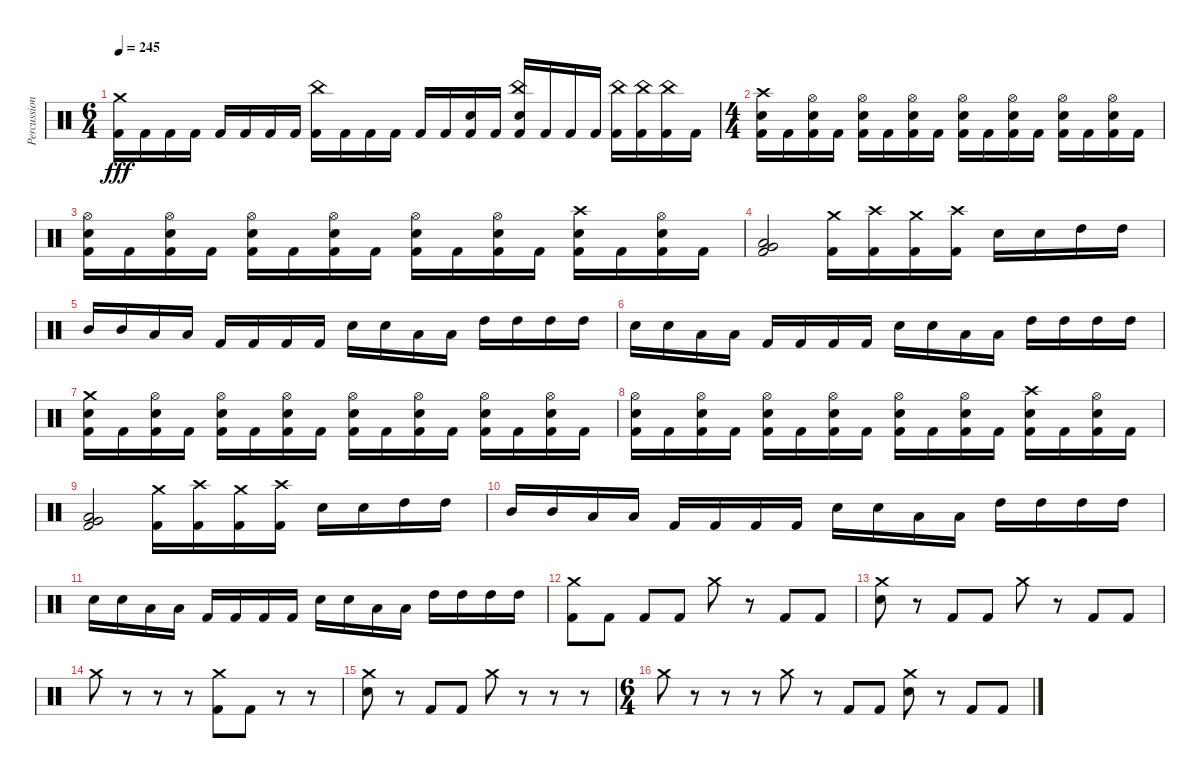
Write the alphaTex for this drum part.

\track ("Percussion" "Percussion") {instrument percussion bank 177}
\staff {score}
\articulation defaults
\ts (6 4)
\tempo 245
\clef neutral
\ks c
("Crash medium (hit)" "Kick (hit) 2").16{dy fff} "Kick (hit) 2".16 "Kick (hit) 2".16 "Kick (hit) 2".16 "Kick (hit) 2".16 "Kick (hit) 2".16 "Kick (hit) 2".16 "Kick (hit) 2".16 ("China (hit)" "Kick (hit) 2").16 "Kick (hit) 2".16 "Kick (hit) 2".16 "Kick (hit) 2".16 "Kick (hit) 2".16 "Kick (hit) 2".16 ("Electric Snare (hit)" "Kick (hit) 2").16 "Kick (hit) 2".16 ("China (hit)" "Electric Snare (hit)" "Kick (hit) 2").16 "Kick (hit) 2".16 "Kick (hit) 2".16 "Kick (hit) 2".16 ("China (hit)" "Kick (hit) 2").16 ("China (hit)" "Kick (hit) 2").16 ("China (hit)" "Kick (hit) 2").16 "Kick (hit) 2".16 |
\ts (4 4)
("Crash high (hit)" "Electric Snare (hit)" "Kick (hit) 2").16 "Kick (hit) 2".16 ("Hi-Hat (open)" "Electric Snare (hit)" "Kick (hit) 2").16 "Kick (hit) 2".16 ("Hi-Hat (open)" "Electric Snare (hit)" "Kick (hit) 2").16 "Kick (hit) 2".16 ("Hi-Hat (open)" "Electric Snare (hit)" "Kick (hit) 2").16 "Kick (hit) 2".16 ("Hi-Hat (open)" "Electric Snare (hit)" "Kick (hit) 2").16 "Kick (hit) 2".16 ("Hi-Hat (open)" "Electric Snare (hit)" "Kick (hit) 2").16 "Kick (hit) 2".16 ("Hi-Hat (open)" "Electric Snare (hit)" "Kick (hit) 2").16 "Kick (hit) 2".16 ("Hi-Hat (open)" "Electric Snare (hit)" "Kick (hit) 2").16 "Kick (hit) 2".16 |
("Hi-Hat (open)" "Electric Snare (hit)" "Kick (hit) 2").16 "Kick (hit) 2".16 ("Hi-Hat (open)" "Electric Snare (hit)" "Kick (hit) 2").16 "Kick (hit) 2".16 ("Hi-Hat (open)" "Electric Snare (hit)" "Kick (hit) 2").16 "Kick (hit) 2".16 ("Hi-Hat (open)" "Electric Snare (hit)" "Kick (hit) 2").16 "Kick (hit) 2".16 ("Hi-Hat (open)" "Electric Snare (hit)" "Kick (hit) 2").16 "Kick (hit) 2".16 ("Hi-Hat (open)" "Electric Snare (hit)" "Kick (hit) 2").16 "Kick (hit) 2".16 ("Crash high (hit)" "Electric Snare (hit)" "Kick (hit) 2").16 "Kick (hit) 2".16 ("Hi-Hat (open)" "Electric Snare (hit)" "Kick (hit) 2").16 "Kick (hit) 2".16 |
("Low Tom (hit)" "Very Low Tom (hit)" "Kick (hit) 2").2 ("Crash medium (hit)" "Kick (hit) 2").16 ("Crash high (hit)" "Kick (hit) 2").16 ("Crash medium (hit)" "Kick (hit) 2").16 ("Crash high (hit)" "Kick (hit) 2").16 "Electric Snare (hit)".16 "Electric Snare (hit)".16 "High Tom (hit)".16 "High Tom (hit)".16 |
"Mid Tom (hit)".16 "Mid Tom (hit)".16 "Low Tom (hit)".16 "Low Tom (hit)".16 "Kick (hit) 2".16 "Kick (hit) 2".16 "Kick (hit) 2".16 "Kick (hit) 2".16 "Electric Snare (hit)".16 "Electric Snare (hit)".16 "Low Tom (hit)".16 "Low Tom (hit)".16 "High Tom (hit)".16 "High Tom (hit)".16 "High Tom (hit)".16 "High Tom (hit)".16 |
"Electric Snare (hit)".16 "Electric Snare (hit)".16 "Low Tom (hit)".16 "Low Tom (hit)".16 "Kick (hit) 2".16 "Kick (hit) 2".16 "Kick (hit) 2".16 "Kick (hit) 2".16 "Electric Snare (hit)".16 "Electric Snare (hit)".16 "Low Tom (hit)".16 "Low Tom (hit)".16 "High Tom (hit)".16 "High Tom (hit)".16 "High Tom (hit)".16 "High Tom (hit)".16 |
("Crash medium (hit)" "Electric Snare (hit)" "Kick (hit) 2").16 "Kick (hit) 2".16 ("Hi-Hat (open)" "Electric Snare (hit)" "Kick (hit) 2").16 "Kick (hit) 2".16 ("Hi-Hat (open)" "Electric Snare (hit)" "Kick (hit) 2").16 "Kick (hit) 2".16 ("Hi-Hat (open)" "Electric Snare (hit)" "Kick (hit) 2").16 "Kick (hit) 2".16 ("Hi-Hat (open)" "Electric Snare (hit)" "Kick (hit) 2").16 "Kick (hit) 2".16 ("Hi-Hat (open)" "Electric Snare (hit)" "Kick (hit) 2").16 "Kick (hit) 2".16 ("Hi-Hat (open)" "Electric Snare (hit)" "Kick (hit) 2").16 "Kick (hit) 2".16 ("Hi-Hat (open)" "Electric Snare (hit)" "Kick (hit) 2").16 "Kick (hit) 2".16 |
("Hi-Hat (open)" "Electric Snare (hit)" "Kick (hit) 2").16 "Kick (hit) 2".16 ("Hi-Hat (open)" "Electric Snare (hit)" "Kick (hit) 2").16 "Kick (hit) 2".16 ("Hi-Hat (open)" "Electric Snare (hit)" "Kick (hit) 2").16 "Kick (hit) 2".16 ("Hi-Hat (open)" "Electric Snare (hit)" "Kick (hit) 2").16 "Kick (hit) 2".16 ("Hi-Hat (open)" "Electric Snare (hit)" "Kick (hit) 2").16 "Kick (hit) 2".16 ("Hi-Hat (open)" "Electric Snare (hit)" "Kick (hit) 2").16 "Kick (hit) 2".16 ("Crash high (hit)" "Electric Snare (hit)" "Kick (hit) 2").16 "Kick (hit) 2".16 ("Hi-Hat (open)" "Electric Snare (hit)" "Kick (hit) 2").16 "Kick (hit) 2".16 |
("Low Tom (hit)" "Very Low Tom (hit)" "Kick (hit) 2").2 ("Crash medium (hit)" "Kick (hit) 2").16 ("Crash high (hit)" "Kick (hit) 2").16 ("Crash medium (hit)" "Kick (hit) 2").16 ("Crash high (hit)" "Kick (hit) 2").16 "Electric Snare (hit)".16 "Electric Snare (hit)".16 "High Tom (hit)".16 "High Tom (hit)".16 |
"Mid Tom (hit)".16 "Mid Tom (hit)".16 "Low Tom (hit)".16 "Low Tom (hit)".16 "Kick (hit) 2".16 "Kick (hit) 2".16 "Kick (hit) 2".16 "Kick (hit) 2".16 "Electric Snare (hit)".16 "Electric Snare (hit)".16 "Low Tom (hit)".16 "Low Tom (hit)".16 "High Tom (hit)".16 "High Tom (hit)".16 "High Tom (hit)".16 "High Tom (hit)".16 |
"Electric Snare (hit)".16 "Electric Snare (hit)".16 "Low Tom (hit)".16 "Low Tom (hit)".16 "Kick (hit) 2".16 "Kick (hit) 2".16 "Kick (hit) 2".16 "Kick (hit) 2".16 "Electric Snare (hit)".16 "Electric Snare (hit)".16 "Low Tom (hit)".16 "Low Tom (hit)".16 "High Tom (hit)".16 "High Tom (hit)".16 "High Tom (hit)".16 "High Tom (hit)".16 |
("Crash medium (hit)" "Kick (hit) 2").8 "Kick (hit) 2".8 "Kick (hit) 2".8 "Kick (hit) 2".8 "Crash medium (hit)".8 r.8 "Kick (hit) 2".8 "Kick (hit) 2".8 |
("Crash medium (hit)" "Electric Snare (hit)").8 r.8 "Kick (hit) 2".8 "Kick (hit) 2".8 "Crash medium (hit)".8 r.8 "Kick (hit) 2".8 "Kick (hit) 2".8 |
"Crash medium (hit)".8 r.8 r.8 r.8 ("Crash medium (hit)" "Kick (hit) 2").8 "Kick (hit) 2".8 r.8 r.8 |
("Crash medium (hit)" "Electric Snare (hit)").8 r.8 "Kick (hit) 2".8 "Kick (hit) 2".8 "Crash medium (hit)".8 r.8 r.8 r.8 |
\ts (6 4)
"Crash medium (hit)".8 r.8 r.8 r.8 "Crash medium (hit)".8 r.8 "Kick (hit) 2".8 "Kick (hit) 2".8 ("Crash medium (hit)" "Electric Snare (hit)").8 r.8 "Kick (hit) 2".8 "Kick (hit) 2".8
